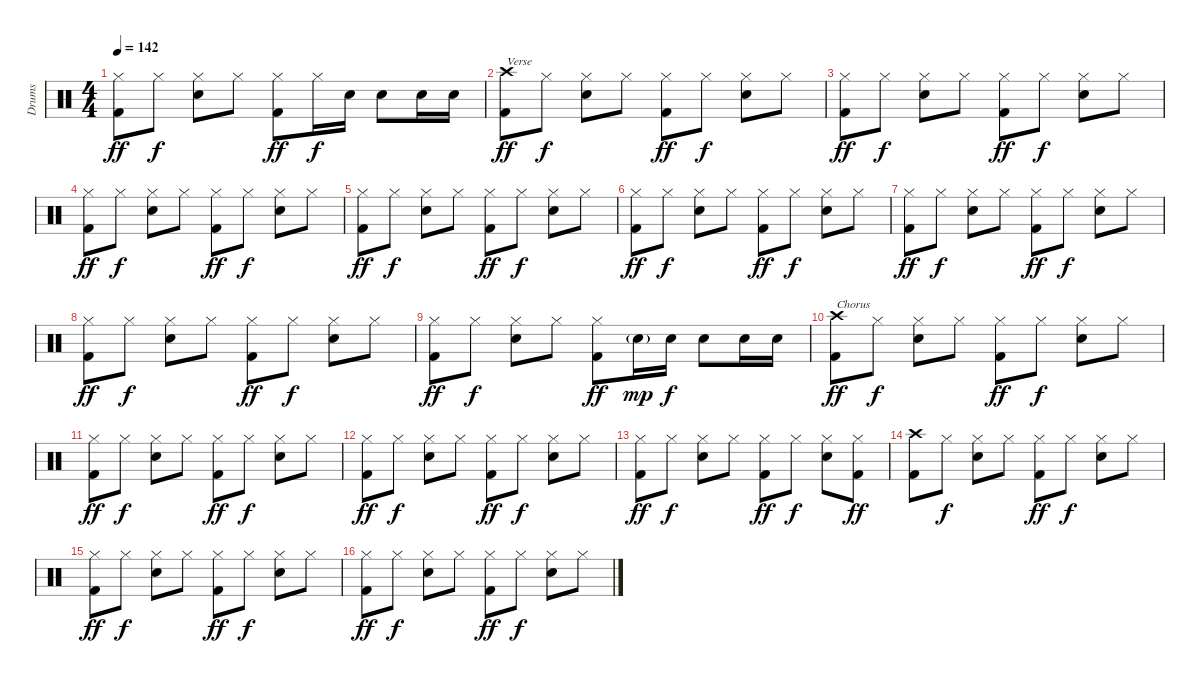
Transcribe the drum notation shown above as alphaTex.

\track ("Drums" "Drums") {instrument percussion}
\staff {score}
\articulation defaults
\ts (4 4)
\tempo 142
\clef neutral
\ks c
("Hi-Hat (closed)" "Kick (hit) 2").8{dy ff} "Hi-Hat (closed)".8{dy f} ("Hi-Hat (closed)" "Snare (hit) 2").8 "Hi-Hat (closed)".8 ("Hi-Hat (closed)" "Kick (hit) 2").8{dy ff} "Hi-Hat (closed)".16{dy f} "Snare (hit) 2".16 "Snare (hit) 2".8 "Snare (hit) 2".16 "Snare (hit) 2".16 |
("Crash high (hit)" "Kick (hit) 2").8{txt "Verse" dy ff} "Hi-Hat (closed)".8{dy f} ("Hi-Hat (closed)" "Snare (hit) 2").8 "Hi-Hat (closed)".8 ("Hi-Hat (closed)" "Kick (hit) 2").8{dy ff} "Hi-Hat (closed)".8{dy f} ("Hi-Hat (closed)" "Snare (hit) 2").8 "Hi-Hat (closed)".8 |
("Hi-Hat (closed)" "Kick (hit) 2").8{dy ff} "Hi-Hat (closed)".8{dy f} ("Hi-Hat (closed)" "Snare (hit) 2").8 "Hi-Hat (closed)".8 ("Hi-Hat (closed)" "Kick (hit) 2").8{dy ff} "Hi-Hat (closed)".8{dy f} ("Hi-Hat (closed)" "Snare (hit) 2").8 "Hi-Hat (closed)".8 |
("Hi-Hat (closed)" "Kick (hit) 2").8{dy ff} "Hi-Hat (closed)".8{dy f} ("Hi-Hat (closed)" "Snare (hit) 2").8 "Hi-Hat (closed)".8 ("Hi-Hat (closed)" "Kick (hit) 2").8{dy ff} "Hi-Hat (closed)".8{dy f} ("Hi-Hat (closed)" "Snare (hit) 2").8 "Hi-Hat (closed)".8 |
("Hi-Hat (closed)" "Kick (hit) 2").8{dy ff} "Hi-Hat (closed)".8{dy f} ("Hi-Hat (closed)" "Snare (hit) 2").8 "Hi-Hat (closed)".8 ("Hi-Hat (closed)" "Kick (hit) 2").8{dy ff} "Hi-Hat (closed)".8{dy f} ("Hi-Hat (closed)" "Snare (hit) 2").8 "Hi-Hat (closed)".8 |
("Hi-Hat (closed)" "Kick (hit) 2").8{dy ff} "Hi-Hat (closed)".8{dy f} ("Hi-Hat (closed)" "Snare (hit) 2").8 "Hi-Hat (closed)".8 ("Hi-Hat (closed)" "Kick (hit) 2").8{dy ff} "Hi-Hat (closed)".8{dy f} ("Hi-Hat (closed)" "Snare (hit) 2").8 "Hi-Hat (closed)".8 |
("Hi-Hat (closed)" "Kick (hit) 2").8{dy ff} "Hi-Hat (closed)".8{dy f} ("Hi-Hat (closed)" "Snare (hit) 2").8 "Hi-Hat (closed)".8 ("Hi-Hat (closed)" "Kick (hit) 2").8{dy ff} "Hi-Hat (closed)".8{dy f} ("Hi-Hat (closed)" "Snare (hit) 2").8 "Hi-Hat (closed)".8 |
("Hi-Hat (closed)" "Kick (hit) 2").8{dy ff} "Hi-Hat (closed)".8{dy f} ("Hi-Hat (closed)" "Snare (hit) 2").8 "Hi-Hat (closed)".8 ("Hi-Hat (closed)" "Kick (hit) 2").8{dy ff} "Hi-Hat (closed)".8{dy f} ("Hi-Hat (closed)" "Snare (hit) 2").8 "Hi-Hat (closed)".8 |
("Hi-Hat (closed)" "Kick (hit) 2").8{dy ff} "Hi-Hat (closed)".8{dy f} ("Hi-Hat (closed)" "Snare (hit) 2").8 "Hi-Hat (closed)".8 ("Hi-Hat (closed)" "Kick (hit) 2").8{dy ff} "Snare (hit) 2"{g}.16{dy mp} "Snare (hit) 2".16{dy f} "Snare (hit) 2".8 "Snare (hit) 2".16 "Snare (hit) 2".16 |
("Crash high (hit)" "Kick (hit) 2").8{txt "Chorus" dy ff} "Hi-Hat (closed)".8{dy f} ("Hi-Hat (closed)" "Snare (hit) 2").8 "Hi-Hat (closed)".8 ("Hi-Hat (closed)" "Kick (hit) 2").8{dy ff} "Hi-Hat (closed)".8{dy f} ("Hi-Hat (closed)" "Snare (hit) 2").8 "Hi-Hat (closed)".8 |
("Hi-Hat (closed)" "Kick (hit) 2").8{dy ff} "Hi-Hat (closed)".8{dy f} ("Hi-Hat (closed)" "Snare (hit) 2").8 "Hi-Hat (closed)".8 ("Hi-Hat (closed)" "Kick (hit) 2").8{dy ff} "Hi-Hat (closed)".8{dy f} ("Hi-Hat (closed)" "Snare (hit) 2").8 "Hi-Hat (closed)".8 |
("Hi-Hat (closed)" "Kick (hit) 2").8{dy ff} "Hi-Hat (closed)".8{dy f} ("Hi-Hat (closed)" "Snare (hit) 2").8 "Hi-Hat (closed)".8 ("Hi-Hat (closed)" "Kick (hit) 2").8{dy ff} "Hi-Hat (closed)".8{dy f} ("Hi-Hat (closed)" "Snare (hit) 2").8 "Hi-Hat (closed)".8 |
("Hi-Hat (closed)" "Kick (hit) 2").8{dy ff} "Hi-Hat (closed)".8{dy f} ("Hi-Hat (closed)" "Snare (hit) 2").8 "Hi-Hat (closed)".8 ("Hi-Hat (closed)" "Kick (hit) 2").8{dy ff} "Hi-Hat (closed)".8{dy f} ("Hi-Hat (closed)" "Snare (hit) 2").8 ("Hi-Hat (closed)" "Kick (hit) 2").8{dy ff} |
("Crash high (hit)" "Kick (hit) 2").8 "Hi-Hat (closed)".8{dy f} ("Hi-Hat (closed)" "Snare (hit) 2").8 "Hi-Hat (closed)".8 ("Hi-Hat (closed)" "Kick (hit) 2").8{dy ff} "Hi-Hat (closed)".8{dy f} ("Hi-Hat (closed)" "Snare (hit) 2").8 "Hi-Hat (closed)".8 |
("Hi-Hat (closed)" "Kick (hit) 2").8{dy ff} "Hi-Hat (closed)".8{dy f} ("Hi-Hat (closed)" "Snare (hit) 2").8 "Hi-Hat (closed)".8 ("Hi-Hat (closed)" "Kick (hit) 2").8{dy ff} "Hi-Hat (closed)".8{dy f} ("Hi-Hat (closed)" "Snare (hit) 2").8 "Hi-Hat (closed)".8 |
("Hi-Hat (closed)" "Kick (hit) 2").8{dy ff} "Hi-Hat (closed)".8{dy f} ("Hi-Hat (closed)" "Snare (hit) 2").8 "Hi-Hat (closed)".8 ("Hi-Hat (closed)" "Kick (hit) 2").8{dy ff} "Hi-Hat (closed)".8{dy f} ("Hi-Hat (closed)" "Snare (hit) 2").8 "Hi-Hat (closed)".8
